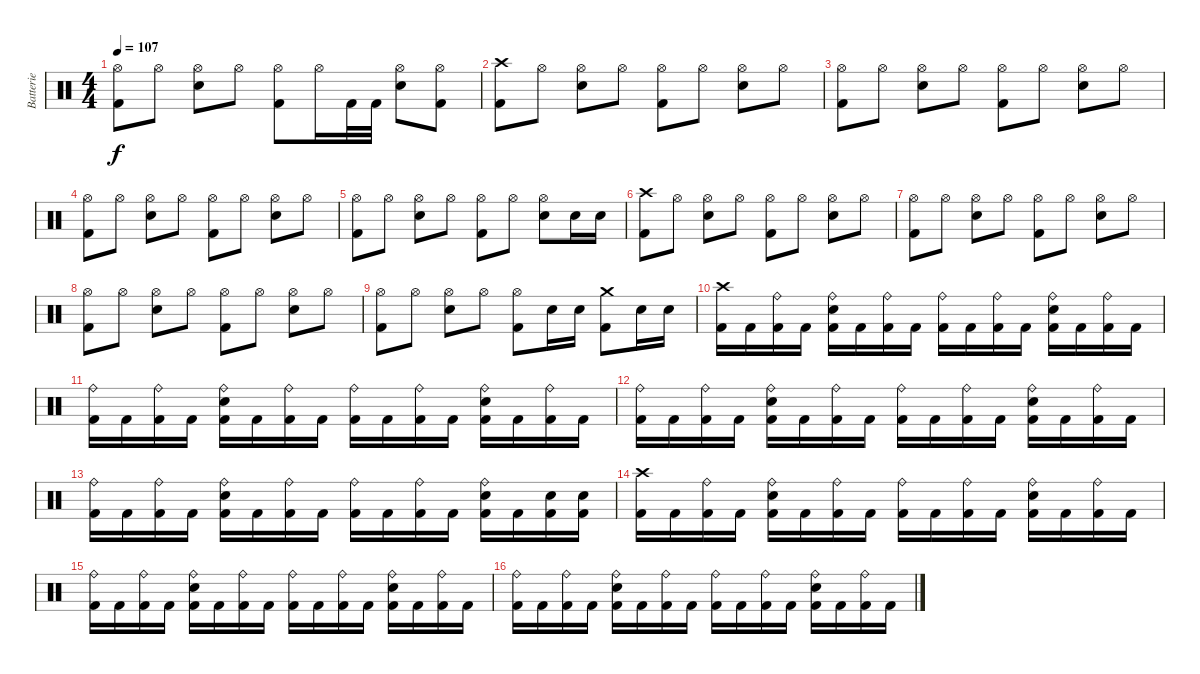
\track ("Batterie" "Batterie") {instrument percussion}
\staff {score}
\articulation defaults
\ts (4 4)
\tempo 107
\clef neutral
\ks c
("Hi-Hat (open)" "Kick (hit) 2").8{dy f} "Hi-Hat (open)".8 ("Hi-Hat (open)" "Electric Snare (hit)").8 "Hi-Hat (open)".8 ("Hi-Hat (open)" "Kick (hit) 2").8 "Hi-Hat (open)".16 "Kick (hit) 2".32 "Kick (hit) 2".32 ("Hi-Hat (open)" "Electric Snare (hit)").8 ("Hi-Hat (open)" "Kick (hit) 2").8 |
("Crash high (hit)" "Kick (hit) 2").8 "Hi-Hat (open)".8 ("Hi-Hat (open)" "Electric Snare (hit)").8 "Hi-Hat (open)".8 ("Hi-Hat (open)" "Kick (hit) 2").8 "Hi-Hat (open)".8 ("Hi-Hat (open)" "Electric Snare (hit)").8 "Hi-Hat (open)".8 |
("Hi-Hat (open)" "Kick (hit) 2").8 "Hi-Hat (open)".8 ("Hi-Hat (open)" "Electric Snare (hit)").8 "Hi-Hat (open)".8 ("Hi-Hat (open)" "Kick (hit) 2").8 "Hi-Hat (open)".8 ("Hi-Hat (open)" "Electric Snare (hit)").8 "Hi-Hat (open)".8 |
("Hi-Hat (open)" "Kick (hit) 2").8 "Hi-Hat (open)".8 ("Hi-Hat (open)" "Electric Snare (hit)").8 "Hi-Hat (open)".8 ("Hi-Hat (open)" "Kick (hit) 2").8 "Hi-Hat (open)".8 ("Hi-Hat (open)" "Electric Snare (hit)").8 "Hi-Hat (open)".8 |
("Hi-Hat (open)" "Kick (hit) 2").8 "Hi-Hat (open)".8 ("Hi-Hat (open)" "Electric Snare (hit)").8 "Hi-Hat (open)".8 ("Hi-Hat (open)" "Kick (hit) 2").8 "Hi-Hat (open)".8 ("Hi-Hat (open)" "Electric Snare (hit)").8 "Electric Snare (hit)".16 "Electric Snare (hit)".16 |
("Crash high (hit)" "Kick (hit) 2").8 "Hi-Hat (open)".8 ("Hi-Hat (open)" "Electric Snare (hit)").8 "Hi-Hat (open)".8 ("Hi-Hat (open)" "Kick (hit) 2").8 "Hi-Hat (open)".8 ("Hi-Hat (open)" "Electric Snare (hit)").8 "Hi-Hat (open)".8 |
("Hi-Hat (open)" "Kick (hit) 2").8 "Hi-Hat (open)".8 ("Hi-Hat (open)" "Electric Snare (hit)").8 "Hi-Hat (open)".8 ("Hi-Hat (open)" "Kick (hit) 2").8 "Hi-Hat (open)".8 ("Hi-Hat (open)" "Electric Snare (hit)").8 "Hi-Hat (open)".8 |
("Hi-Hat (open)" "Kick (hit) 2").8 "Hi-Hat (open)".8 ("Hi-Hat (open)" "Electric Snare (hit)").8 "Hi-Hat (open)".8 ("Hi-Hat (open)" "Kick (hit) 2").8 "Hi-Hat (open)".8 ("Hi-Hat (open)" "Electric Snare (hit)").8 "Hi-Hat (open)".8 |
("Hi-Hat (open)" "Kick (hit) 2").8 "Hi-Hat (open)".8 ("Hi-Hat (open)" "Electric Snare (hit)").8 "Hi-Hat (open)".8 ("Hi-Hat (open)" "Kick (hit) 2").8 "Electric Snare (hit)".16 "Electric Snare (hit)".16 ("Crash medium (hit)" "Kick (hit) 2").8 "Electric Snare (hit)".16 "Electric Snare (hit)".16 |
("Crash high (hit)" "Kick (hit) 2").16 "Kick (hit) 2".16 ("Ride (bell)" "Kick (hit) 2").16 "Kick (hit) 2".16 ("Ride (bell)" "Electric Snare (hit)" "Kick (hit) 2").16 "Kick (hit) 2".16 ("Ride (bell)" "Kick (hit) 2").16 "Kick (hit) 2".16 ("Ride (bell)" "Kick (hit) 2").16 "Kick (hit) 2".16 ("Ride (bell)" "Kick (hit) 2").16 "Kick (hit) 2".16 ("Ride (bell)" "Electric Snare (hit)" "Kick (hit) 2").16 "Kick (hit) 2".16 ("Ride (bell)" "Kick (hit) 2").16 "Kick (hit) 2".16 |
("Ride (bell)" "Kick (hit) 2").16 "Kick (hit) 2".16 ("Ride (bell)" "Kick (hit) 2").16 "Kick (hit) 2".16 ("Ride (bell)" "Electric Snare (hit)" "Kick (hit) 2").16 "Kick (hit) 2".16 ("Ride (bell)" "Kick (hit) 2").16 "Kick (hit) 2".16 ("Ride (bell)" "Kick (hit) 2").16 "Kick (hit) 2".16 ("Ride (bell)" "Kick (hit) 2").16 "Kick (hit) 2".16 ("Ride (bell)" "Electric Snare (hit)" "Kick (hit) 2").16 "Kick (hit) 2".16 ("Ride (bell)" "Kick (hit) 2").16 "Kick (hit) 2".16 |
("Ride (bell)" "Kick (hit) 2").16 "Kick (hit) 2".16 ("Ride (bell)" "Kick (hit) 2").16 "Kick (hit) 2".16 ("Ride (bell)" "Electric Snare (hit)" "Kick (hit) 2").16 "Kick (hit) 2".16 ("Ride (bell)" "Kick (hit) 2").16 "Kick (hit) 2".16 ("Ride (bell)" "Kick (hit) 2").16 "Kick (hit) 2".16 ("Ride (bell)" "Kick (hit) 2").16 "Kick (hit) 2".16 ("Ride (bell)" "Electric Snare (hit)" "Kick (hit) 2").16 "Kick (hit) 2".16 ("Ride (bell)" "Kick (hit) 2").16 "Kick (hit) 2".16 |
("Ride (bell)" "Kick (hit) 2").16 "Kick (hit) 2".16 ("Ride (bell)" "Kick (hit) 2").16 "Kick (hit) 2".16 ("Ride (bell)" "Electric Snare (hit)" "Kick (hit) 2").16 "Kick (hit) 2".16 ("Ride (bell)" "Kick (hit) 2").16 "Kick (hit) 2".16 ("Ride (bell)" "Kick (hit) 2").16 "Kick (hit) 2".16 ("Ride (bell)" "Kick (hit) 2").16 "Kick (hit) 2".16 ("Ride (bell)" "Electric Snare (hit)" "Kick (hit) 2").16 "Kick (hit) 2".16 ("Electric Snare (hit)" "Kick (hit) 2").16 ("Electric Snare (hit)" "Kick (hit) 2").16 |
("Crash high (hit)" "Kick (hit) 2").16 "Kick (hit) 2".16 ("Ride (bell)" "Kick (hit) 2").16 "Kick (hit) 2".16 ("Ride (bell)" "Electric Snare (hit)" "Kick (hit) 2").16 "Kick (hit) 2".16 ("Ride (bell)" "Kick (hit) 2").16 "Kick (hit) 2".16 ("Ride (bell)" "Kick (hit) 2").16 "Kick (hit) 2".16 ("Ride (bell)" "Kick (hit) 2").16 "Kick (hit) 2".16 ("Ride (bell)" "Electric Snare (hit)" "Kick (hit) 2").16 "Kick (hit) 2".16 ("Ride (bell)" "Kick (hit) 2").16 "Kick (hit) 2".16 |
("Ride (bell)" "Kick (hit) 2").16 "Kick (hit) 2".16 ("Ride (bell)" "Kick (hit) 2").16 "Kick (hit) 2".16 ("Ride (bell)" "Electric Snare (hit)" "Kick (hit) 2").16 "Kick (hit) 2".16 ("Ride (bell)" "Kick (hit) 2").16 "Kick (hit) 2".16 ("Ride (bell)" "Kick (hit) 2").16 "Kick (hit) 2".16 ("Ride (bell)" "Kick (hit) 2").16 "Kick (hit) 2".16 ("Ride (bell)" "Electric Snare (hit)" "Kick (hit) 2").16 "Kick (hit) 2".16 ("Ride (bell)" "Kick (hit) 2").16 "Kick (hit) 2".16 |
("Ride (bell)" "Kick (hit) 2").16 "Kick (hit) 2".16 ("Ride (bell)" "Kick (hit) 2").16 "Kick (hit) 2".16 ("Ride (bell)" "Electric Snare (hit)" "Kick (hit) 2").16 "Kick (hit) 2".16 ("Ride (bell)" "Kick (hit) 2").16 "Kick (hit) 2".16 ("Ride (bell)" "Kick (hit) 2").16 "Kick (hit) 2".16 ("Ride (bell)" "Kick (hit) 2").16 "Kick (hit) 2".16 ("Ride (bell)" "Electric Snare (hit)" "Kick (hit) 2").16 "Kick (hit) 2".16 ("Ride (bell)" "Kick (hit) 2").16 "Kick (hit) 2".16
